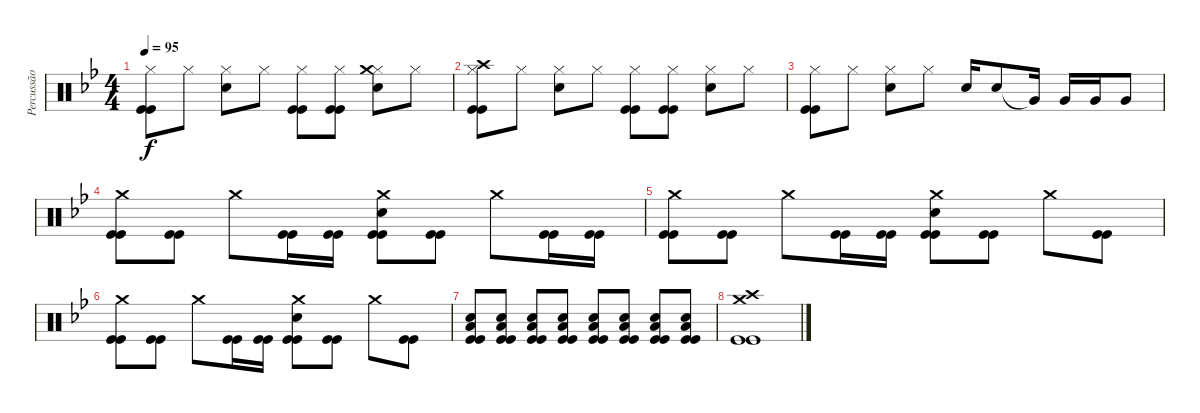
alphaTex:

\track ("Percussão" "Percussão") {instrument percussion}
\staff {score}
\articulation defaults
\ts (4 4)
\tempo 95
\clef neutral
\ks gminor
("Kick (hit)" "Kick (hit)" "Hi-Hat (closed)").8{dy f} "Hi-Hat (closed)".8 ("Electric Snare (hit)" "Hi-Hat (closed)").8 "Hi-Hat (closed)".8 ("Kick (hit)" "Kick (hit)" "Hi-Hat (closed)").8 ("Kick (hit)" "Kick (hit)" "Hi-Hat (closed)").8 ("Electric Snare (hit)" "Hi-Hat (closed)" "Crash medium (hit)").8 "Hi-Hat (closed)".8 |
("Kick (hit)" "Kick (hit)" "Hi-Hat (closed)" "Crash high (hit)").8 "Hi-Hat (closed)".8 ("Electric Snare (hit)" "Hi-Hat (closed)").8 "Hi-Hat (closed)".8 ("Kick (hit)" "Kick (hit)" "Hi-Hat (closed)").8 ("Kick (hit)" "Kick (hit)" "Hi-Hat (closed)").8 ("Electric Snare (hit)" "Hi-Hat (closed)").8 "Hi-Hat (closed)".8 |
("Kick (hit)" "Kick (hit)" "Hi-Hat (closed)").8 "Hi-Hat (closed)".8 ("Electric Snare (hit)" "Hi-Hat (closed)").8 "Hi-Hat (closed)".8 "Electric Snare (hit)".16 "Electric Snare (hit)".8 "Very Low Tom (hit)"{t}.16 "Very Low Tom (hit)".16 "Very Low Tom (hit)".16 "Very Low Tom (hit)".8 |
("Kick (hit)" "Kick (hit)" "Crash medium (hit)").8 ("Kick (hit)" "Kick (hit)").8 "Crash medium (hit)".8 ("Kick (hit)" "Kick (hit)").16 ("Kick (hit)" "Kick (hit)").16 ("Kick (hit)" "Kick (hit)" "Electric Snare (hit)" "Crash medium (hit)").8 ("Kick (hit)" "Kick (hit)").8 "Crash medium (hit)".8 ("Kick (hit)" "Kick (hit)").16 ("Kick (hit)" "Kick (hit)").16 |
("Kick (hit)" "Kick (hit)" "Crash medium (hit)").8 ("Kick (hit)" "Kick (hit)").8 "Crash medium (hit)".8 ("Kick (hit)" "Kick (hit)").16 ("Kick (hit)" "Kick (hit)").16 ("Kick (hit)" "Kick (hit)" "Electric Snare (hit)" "Crash medium (hit)").8 ("Kick (hit)" "Kick (hit)").8 "Crash medium (hit)".8 ("Kick (hit)" "Kick (hit)").8 |
("Kick (hit)" "Kick (hit)" "Crash medium (hit)").8 ("Kick (hit)" "Kick (hit)").8 "Crash medium (hit)".8 ("Kick (hit)" "Kick (hit)").16 ("Kick (hit)" "Kick (hit)").16 ("Kick (hit)" "Kick (hit)" "Electric Snare (hit)" "Crash medium (hit)").8 ("Kick (hit)" "Kick (hit)").8 "Crash medium (hit)".8 ("Kick (hit)" "Kick (hit)").8 |
("Kick (hit)" "Kick (hit)" "Electric Snare (hit)" "Low Floor Tom (hit)").8 ("Kick (hit)" "Kick (hit)" "Electric Snare (hit)" "Low Floor Tom (hit)").8 ("Kick (hit)" "Kick (hit)" "Electric Snare (hit)" "Low Floor Tom (hit)").8 ("Kick (hit)" "Kick (hit)" "Electric Snare (hit)" "Low Floor Tom (hit)").8 ("Kick (hit)" "Kick (hit)" "Electric Snare (hit)" "Low Floor Tom (hit)").8 ("Kick (hit)" "Kick (hit)" "Electric Snare (hit)" "Low Floor Tom (hit)").8 ("Kick (hit)" "Kick (hit)" "Electric Snare (hit)" "Low Floor Tom (hit)").8 ("Kick (hit)" "Kick (hit)" "Electric Snare (hit)" "Low Floor Tom (hit)").8 |
("Kick (hit)" "Kick (hit)" "Crash high (hit)" "Crash medium (hit)").1
